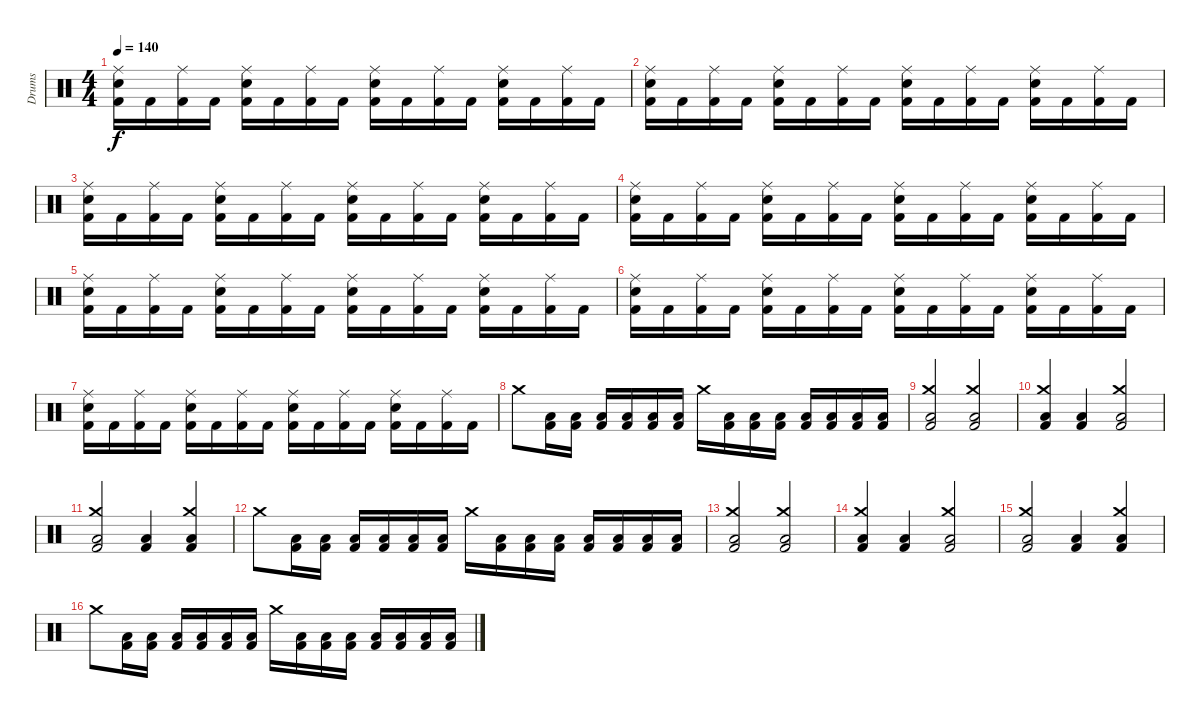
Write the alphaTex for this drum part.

\track ("Drums" "Drums") {instrument percussion}
\staff {score}
\articulation defaults
\ts (4 4)
\tempo 140
\clef neutral
\ks c
("Ride (middle)" "Electric Snare (hit)" "Kick (hit) 2").16{dy f} "Kick (hit) 2".16 ("Ride (middle)" "Kick (hit) 2").16 "Kick (hit) 2".16 ("Ride (middle)" "Electric Snare (hit)" "Kick (hit) 2").16 "Kick (hit) 2".16 ("Ride (middle)" "Kick (hit) 2").16 "Kick (hit) 2".16 ("Ride (middle)" "Electric Snare (hit)" "Kick (hit) 2").16 "Kick (hit) 2".16 ("Ride (middle)" "Kick (hit) 2").16 "Kick (hit) 2".16 ("Ride (middle)" "Electric Snare (hit)" "Kick (hit) 2").16 "Kick (hit) 2".16 ("Ride (middle)" "Kick (hit) 2").16 "Kick (hit) 2".16 |
("Ride (middle)" "Electric Snare (hit)" "Kick (hit) 2").16 "Kick (hit) 2".16 ("Ride (middle)" "Kick (hit) 2").16 "Kick (hit) 2".16 ("Ride (middle)" "Electric Snare (hit)" "Kick (hit) 2").16 "Kick (hit) 2".16 ("Ride (middle)" "Kick (hit) 2").16 "Kick (hit) 2".16 ("Ride (middle)" "Electric Snare (hit)" "Kick (hit) 2").16 "Kick (hit) 2".16 ("Ride (middle)" "Kick (hit) 2").16 "Kick (hit) 2".16 ("Ride (middle)" "Electric Snare (hit)" "Kick (hit) 2").16 "Kick (hit) 2".16 ("Ride (middle)" "Kick (hit) 2").16 "Kick (hit) 2".16 |
("Ride (middle)" "Electric Snare (hit)" "Kick (hit) 2").16 "Kick (hit) 2".16 ("Ride (middle)" "Kick (hit) 2").16 "Kick (hit) 2".16 ("Ride (middle)" "Electric Snare (hit)" "Kick (hit) 2").16 "Kick (hit) 2".16 ("Ride (middle)" "Kick (hit) 2").16 "Kick (hit) 2".16 ("Ride (middle)" "Electric Snare (hit)" "Kick (hit) 2").16 "Kick (hit) 2".16 ("Ride (middle)" "Kick (hit) 2").16 "Kick (hit) 2".16 ("Ride (middle)" "Electric Snare (hit)" "Kick (hit) 2").16 "Kick (hit) 2".16 ("Ride (middle)" "Kick (hit) 2").16 "Kick (hit) 2".16 |
("Ride (middle)" "Electric Snare (hit)" "Kick (hit) 2").16 "Kick (hit) 2".16 ("Ride (middle)" "Kick (hit) 2").16 "Kick (hit) 2".16 ("Ride (middle)" "Electric Snare (hit)" "Kick (hit) 2").16 "Kick (hit) 2".16 ("Ride (middle)" "Kick (hit) 2").16 "Kick (hit) 2".16 ("Ride (middle)" "Electric Snare (hit)" "Kick (hit) 2").16 "Kick (hit) 2".16 ("Ride (middle)" "Kick (hit) 2").16 "Kick (hit) 2".16 ("Ride (middle)" "Electric Snare (hit)" "Kick (hit) 2").16 "Kick (hit) 2".16 ("Ride (middle)" "Kick (hit) 2").16 "Kick (hit) 2".16 |
("Ride (middle)" "Electric Snare (hit)" "Kick (hit) 2").16 "Kick (hit) 2".16 ("Ride (middle)" "Kick (hit) 2").16 "Kick (hit) 2".16 ("Ride (middle)" "Electric Snare (hit)" "Kick (hit) 2").16 "Kick (hit) 2".16 ("Ride (middle)" "Kick (hit) 2").16 "Kick (hit) 2".16 ("Ride (middle)" "Electric Snare (hit)" "Kick (hit) 2").16 "Kick (hit) 2".16 ("Ride (middle)" "Kick (hit) 2").16 "Kick (hit) 2".16 ("Ride (middle)" "Electric Snare (hit)" "Kick (hit) 2").16 "Kick (hit) 2".16 ("Ride (middle)" "Kick (hit) 2").16 "Kick (hit) 2".16 |
("Ride (middle)" "Electric Snare (hit)" "Kick (hit) 2").16 "Kick (hit) 2".16 ("Ride (middle)" "Kick (hit) 2").16 "Kick (hit) 2".16 ("Ride (middle)" "Electric Snare (hit)" "Kick (hit) 2").16 "Kick (hit) 2".16 ("Ride (middle)" "Kick (hit) 2").16 "Kick (hit) 2".16 ("Ride (middle)" "Electric Snare (hit)" "Kick (hit) 2").16 "Kick (hit) 2".16 ("Ride (middle)" "Kick (hit) 2").16 "Kick (hit) 2".16 ("Ride (middle)" "Electric Snare (hit)" "Kick (hit) 2").16 "Kick (hit) 2".16 ("Ride (middle)" "Kick (hit) 2").16 "Kick (hit) 2".16 |
("Ride (middle)" "Electric Snare (hit)" "Kick (hit) 2").16 "Kick (hit) 2".16 ("Ride (middle)" "Kick (hit) 2").16 "Kick (hit) 2".16 ("Ride (middle)" "Electric Snare (hit)" "Kick (hit) 2").16 "Kick (hit) 2".16 ("Ride (middle)" "Kick (hit) 2").16 "Kick (hit) 2".16 ("Ride (middle)" "Electric Snare (hit)" "Kick (hit) 2").16 "Kick (hit) 2".16 ("Ride (middle)" "Kick (hit) 2").16 "Kick (hit) 2".16 ("Ride (middle)" "Electric Snare (hit)" "Kick (hit) 2").16 "Kick (hit) 2".16 ("Ride (middle)" "Kick (hit) 2").16 "Kick (hit) 2".16 |
"Crash medium (hit)".8 ("Low Tom (hit)" "Kick (hit) 2").16 ("Low Tom (hit)" "Kick (hit) 2").16 ("Low Tom (hit)" "Kick (hit) 2").16 ("Low Tom (hit)" "Kick (hit) 2").16 ("Low Tom (hit)" "Kick (hit) 2").16 ("Low Tom (hit)" "Kick (hit) 2").16 "Crash medium (hit)".16 ("Low Tom (hit)" "Kick (hit) 2").16 ("Low Tom (hit)" "Kick (hit) 2").16 ("Low Tom (hit)" "Kick (hit) 2").16 ("Low Tom (hit)" "Kick (hit) 2").16 ("Low Tom (hit)" "Kick (hit) 2").16 ("Low Tom (hit)" "Kick (hit) 2").16 ("Low Tom (hit)" "Kick (hit) 2").16 |
("Crash medium (hit)" "Low Tom (hit)" "Kick (hit) 2").2 ("Crash medium (hit)" "Low Tom (hit)" "Kick (hit) 2").2 |
("Crash medium (hit)" "Low Tom (hit)" "Kick (hit) 2").4 ("Low Tom (hit)" "Kick (hit) 2").4 ("Crash medium (hit)" "Low Tom (hit)" "Kick (hit) 2").2 |
("Crash medium (hit)" "Low Tom (hit)" "Kick (hit) 2").2 ("Low Tom (hit)" "Kick (hit) 2").4 ("Crash medium (hit)" "Low Tom (hit)" "Kick (hit) 2").4 |
"Crash medium (hit)".8 ("Low Tom (hit)" "Kick (hit) 2").16 ("Low Tom (hit)" "Kick (hit) 2").16 ("Low Tom (hit)" "Kick (hit) 2").16 ("Low Tom (hit)" "Kick (hit) 2").16 ("Low Tom (hit)" "Kick (hit) 2").16 ("Low Tom (hit)" "Kick (hit) 2").16 "Crash medium (hit)".16 ("Low Tom (hit)" "Kick (hit) 2").16 ("Low Tom (hit)" "Kick (hit) 2").16 ("Low Tom (hit)" "Kick (hit) 2").16 ("Low Tom (hit)" "Kick (hit) 2").16 ("Low Tom (hit)" "Kick (hit) 2").16 ("Low Tom (hit)" "Kick (hit) 2").16 ("Low Tom (hit)" "Kick (hit) 2").16 |
("Crash medium (hit)" "Low Tom (hit)" "Kick (hit) 2").2 ("Crash medium (hit)" "Low Tom (hit)" "Kick (hit) 2").2 |
("Crash medium (hit)" "Low Tom (hit)" "Kick (hit) 2").4 ("Low Tom (hit)" "Kick (hit) 2").4 ("Crash medium (hit)" "Low Tom (hit)" "Kick (hit) 2").2 |
("Crash medium (hit)" "Low Tom (hit)" "Kick (hit) 2").2 ("Low Tom (hit)" "Kick (hit) 2").4 ("Crash medium (hit)" "Low Tom (hit)" "Kick (hit) 2").4 |
"Crash medium (hit)".8 ("Low Tom (hit)" "Kick (hit) 2").16 ("Low Tom (hit)" "Kick (hit) 2").16 ("Low Tom (hit)" "Kick (hit) 2").16 ("Low Tom (hit)" "Kick (hit) 2").16 ("Low Tom (hit)" "Kick (hit) 2").16 ("Low Tom (hit)" "Kick (hit) 2").16 "Crash medium (hit)".16 ("Low Tom (hit)" "Kick (hit) 2").16 ("Low Tom (hit)" "Kick (hit) 2").16 ("Low Tom (hit)" "Kick (hit) 2").16 ("Low Tom (hit)" "Kick (hit) 2").16 ("Low Tom (hit)" "Kick (hit) 2").16 ("Low Tom (hit)" "Kick (hit) 2").16 ("Low Tom (hit)" "Kick (hit) 2").16
